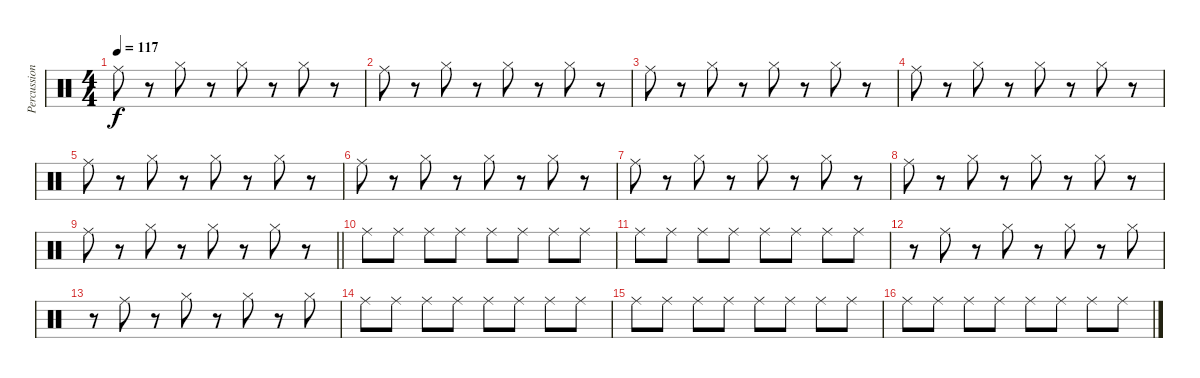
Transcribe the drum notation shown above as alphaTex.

\track ("Percussion" "Percussion") {instrument percussion}
\staff {score}
\articulation defaults
\ts (4 4)
\tempo 117
\clef neutral
\ks c "Ride (middle)".8{dy f}
r.8 "Hi-Hat (closed)".8 r.8 "Hi-Hat (closed)".8 r.8 "Hi-Hat (closed)".8 r.8 |
"Ride (middle)".8 r.8 "Hi-Hat (closed)".8 r.8 "Hi-Hat (closed)".8 r.8 "Hi-Hat (closed)".8 r.8 |
"Ride (middle)".8 r.8 "Hi-Hat (closed)".8 r.8 "Hi-Hat (closed)".8 r.8 "Hi-Hat (closed)".8 r.8 |
"Ride (middle)".8 r.8 "Hi-Hat (closed)".8 r.8 "Hi-Hat (closed)".8 r.8 "Hi-Hat (closed)".8 r.8 |
"Ride (middle)".8 r.8 "Hi-Hat (closed)".8 r.8 "Hi-Hat (closed)".8 r.8 "Hi-Hat (closed)".8 r.8 |
"Ride (middle)".8 r.8 "Hi-Hat (closed)".8 r.8 "Hi-Hat (closed)".8 r.8 "Hi-Hat (closed)".8 r.8 |
"Ride (middle)".8 r.8 "Hi-Hat (closed)".8 r.8 "Hi-Hat (closed)".8 r.8 "Hi-Hat (closed)".8 r.8 |
"Ride (middle)".8 r.8 "Hi-Hat (closed)".8 r.8 "Hi-Hat (closed)".8 r.8 "Hi-Hat (closed)".8 r.8 |
\barLineRight lightlight "Ride (middle)".8
r.8 "Hi-Hat (closed)".8 r.8 "Hi-Hat (closed)".8 r.8 "Hi-Hat (closed)".8 r.8 |
"Ride (middle)".8 "Ride (middle)".8 "Ride (middle)".8 "Ride (middle)".8 "Ride (middle)".8 "Ride (middle)".8 "Ride (middle)".8 "Ride (middle)".8 |
"Ride (middle)".8 "Ride (middle)".8 "Ride (middle)".8 "Ride (middle)".8 "Ride (middle)".8 "Ride (middle)".8 "Ride (middle)".8 "Ride (middle)".8 |
r.8 "Ride (middle)".8 r.8 "Hi-Hat (closed)".8 r.8 "Hi-Hat (closed)".8 r.8 "Hi-Hat (closed)".8 |
r.8 "Ride (middle)".8 r.8 "Hi-Hat (closed)".8 r.8 "Hi-Hat (closed)".8 r.8 "Hi-Hat (closed)".8 |
"Ride (middle)".8 "Ride (middle)".8 "Ride (middle)".8 "Ride (middle)".8 "Ride (middle)".8 "Ride (middle)".8 "Ride (middle)".8 "Ride (middle)".8 |
"Ride (middle)".8 "Ride (middle)".8 "Ride (middle)".8 "Ride (middle)".8 "Ride (middle)".8 "Ride (middle)".8 "Ride (middle)".8 "Ride (middle)".8 |
"Ride (middle)".8 "Ride (middle)".8 "Ride (middle)".8 "Ride (middle)".8 "Ride (middle)".8 "Ride (middle)".8 "Ride (middle)".8 "Ride (middle)".8
